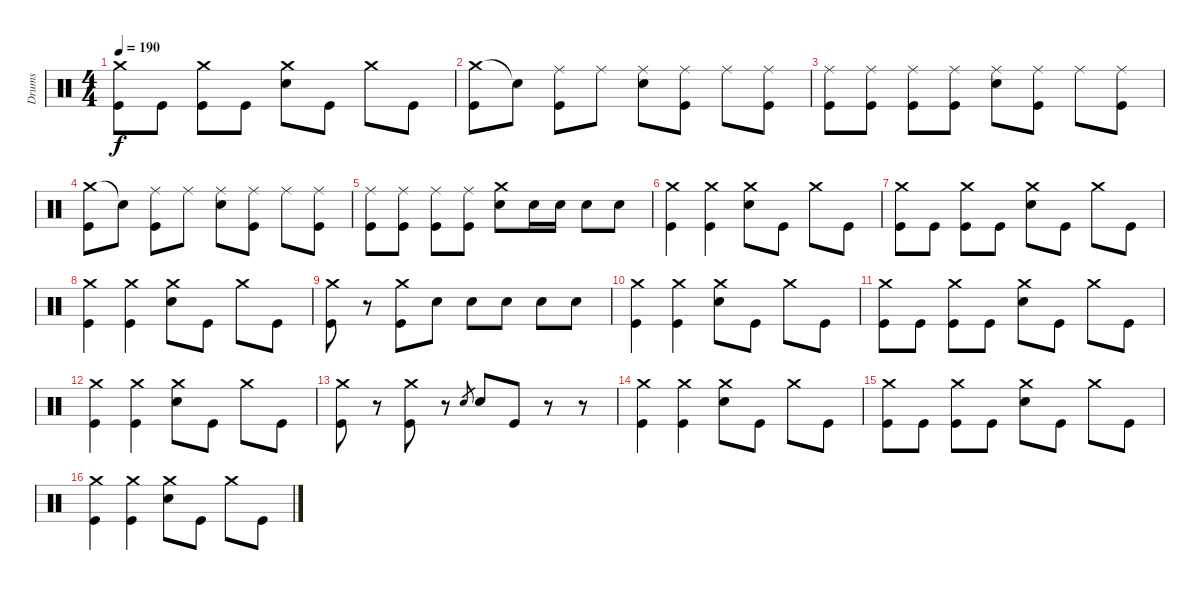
\track ("Drums" "Drums") {instrument percussion}
\staff {score}
\articulation defaults
\ts (4 4)
\tempo 190
\clef neutral
\ks c
("Crash medium (hit)" "Kick (hit)").8{dy f} "Kick (hit)".8 ("Crash medium (hit)" "Kick (hit)").8 "Kick (hit)".8 ("Crash medium (hit)" "Electric Snare (hit)").8 "Kick (hit)".8 "Crash medium (hit)".8 "Kick (hit)".8 |
("Crash medium (hit)" "Kick (hit)").8 "Snare (hit)"{t}.8 ("Ride (middle)" "Kick (hit)").8 "Ride (middle)".8 ("Ride (middle)" "Electric Snare (hit)").8 ("Ride (middle)" "Kick (hit)").8 "Ride (middle)".8 ("Ride (middle)" "Kick (hit)").8 |
("Ride (middle)" "Kick (hit)").8 ("Ride (middle)" "Kick (hit)").8 ("Ride (middle)" "Kick (hit)").8 ("Ride (middle)" "Kick (hit)").8 ("Ride (middle)" "Electric Snare (hit)").8 ("Ride (middle)" "Kick (hit)").8 "Ride (middle)".8 ("Ride (middle)" "Kick (hit)").8 |
("Crash medium (hit)" "Kick (hit)").8 "Snare (hit)"{t}.8 ("Ride (middle)" "Kick (hit)").8 "Ride (middle)".8 ("Ride (middle)" "Electric Snare (hit)").8 ("Ride (middle)" "Kick (hit)").8 "Ride (middle)".8 ("Ride (middle)" "Kick (hit)").8 |
("Ride (middle)" "Kick (hit)").8 ("Ride (middle)" "Kick (hit)").8 ("Ride (middle)" "Kick (hit)").8 ("Ride (middle)" "Kick (hit)").8 ("Crash medium (hit)" "Electric Snare (hit)").8 "Electric Snare (hit)".16 "Electric Snare (hit)".16 "Electric Snare (hit)".8 "Electric Snare (hit)".8 |
("Crash medium (hit)" "Kick (hit)").4 ("Crash medium (hit)" "Kick (hit)").4 ("Crash medium (hit)" "Electric Snare (hit)").8 "Kick (hit)".8 "Crash medium (hit)".8 "Kick (hit)".8 |
("Crash medium (hit)" "Kick (hit)").8 "Kick (hit)".8 ("Crash medium (hit)" "Kick (hit)").8 "Kick (hit)".8 ("Crash medium (hit)" "Electric Snare (hit)").8 "Kick (hit)".8 "Crash medium (hit)".8 "Kick (hit)".8 |
("Crash medium (hit)" "Kick (hit)").4 ("Crash medium (hit)" "Kick (hit)").4 ("Crash medium (hit)" "Electric Snare (hit)").8 "Kick (hit)".8 "Crash medium (hit)".8 "Kick (hit)".8 |
("Crash medium (hit)" "Kick (hit)").8 r.8 ("Crash medium (hit)" "Kick (hit)").8 "Electric Snare (hit)".8 "Electric Snare (hit)".8 "Electric Snare (hit)".8 "Electric Snare (hit)".8 "Electric Snare (hit)".8 |
("Crash medium (hit)" "Kick (hit)").4 ("Crash medium (hit)" "Kick (hit)").4 ("Crash medium (hit)" "Electric Snare (hit)").8 "Kick (hit)".8 "Crash medium (hit)".8 "Kick (hit)".8 |
("Crash medium (hit)" "Kick (hit)").8 "Kick (hit)".8 ("Crash medium (hit)" "Kick (hit)").8 "Kick (hit)".8 ("Crash medium (hit)" "Electric Snare (hit)").8 "Kick (hit)".8 "Crash medium (hit)".8 "Kick (hit)".8 |
("Crash medium (hit)" "Kick (hit)").4 ("Crash medium (hit)" "Kick (hit)").4 ("Crash medium (hit)" "Electric Snare (hit)").8 "Kick (hit)".8 "Crash medium (hit)".8 "Kick (hit)".8 |
("Crash medium (hit)" "Kick (hit)").8 r.8 ("Crash medium (hit)" "Kick (hit)").8 r.8 "Electric Snare (hit)".8{gr} "Electric Snare (hit)".8 "Kick (hit)".8 r.8 r.8 |
("Crash medium (hit)" "Kick (hit)").4 ("Crash medium (hit)" "Kick (hit)").4 ("Crash medium (hit)" "Electric Snare (hit)").8 "Kick (hit)".8 "Crash medium (hit)".8 "Kick (hit)".8 |
("Crash medium (hit)" "Kick (hit)").8 "Kick (hit)".8 ("Crash medium (hit)" "Kick (hit)").8 "Kick (hit)".8 ("Crash medium (hit)" "Electric Snare (hit)").8 "Kick (hit)".8 "Crash medium (hit)".8 "Kick (hit)".8 |
("Crash medium (hit)" "Kick (hit)").4 ("Crash medium (hit)" "Kick (hit)").4 ("Crash medium (hit)" "Electric Snare (hit)").8 "Kick (hit)".8 "Crash medium (hit)".8 "Kick (hit)".8
